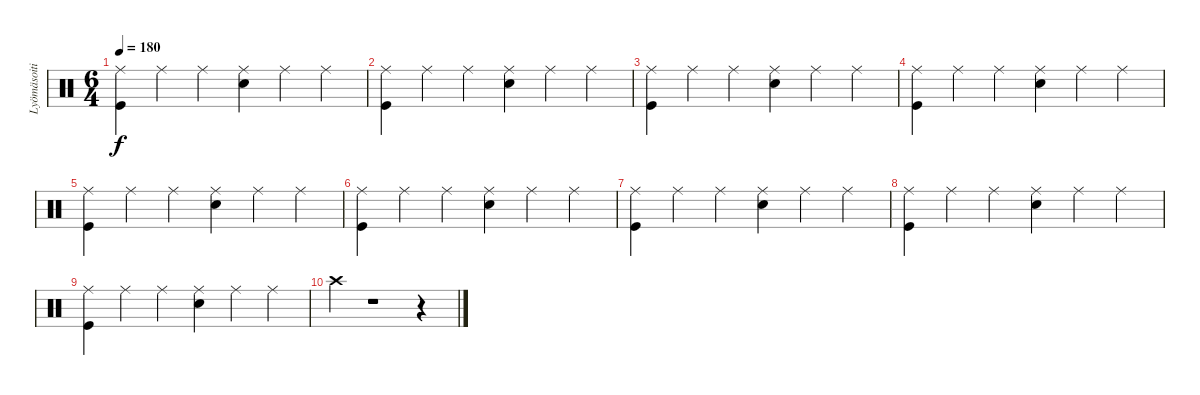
\track ("Lyömäsoitin" "Lyömäsoiti") {instrument percussion}
\staff {score}
\articulation defaults
\ts (6 4)
\tempo 180
\clef neutral
\ks c
("Kick (hit)" "Ride (middle)").4{dy f} "Ride (middle)".4 "Ride (middle)".4 ("Snare (hit) 2" "Ride (middle)").4 "Ride (middle)".4 "Ride (middle)".4 |
("Kick (hit)" "Ride (middle)").4 "Ride (middle)".4 "Ride (middle)".4 ("Snare (hit) 2" "Ride (middle)").4 "Ride (middle)".4 "Ride (middle)".4 |
("Kick (hit)" "Ride (middle)").4 "Ride (middle)".4 "Ride (middle)".4 ("Snare (hit) 2" "Ride (middle)").4 "Ride (middle)".4 "Ride (middle)".4 |
("Kick (hit)" "Ride (middle)").4 "Ride (middle)".4 "Ride (middle)".4 ("Snare (hit) 2" "Ride (middle)").4 "Ride (middle)".4 "Ride (middle)".4 |
("Kick (hit)" "Ride (middle)").4 "Ride (middle)".4 "Ride (middle)".4 ("Snare (hit) 2" "Ride (middle)").4 "Ride (middle)".4 "Ride (middle)".4 |
("Kick (hit)" "Ride (middle)").4 "Ride (middle)".4 "Ride (middle)".4 ("Snare (hit) 2" "Ride (middle)").4 "Ride (middle)".4 "Ride (middle)".4 |
("Kick (hit)" "Ride (middle)").4 "Ride (middle)".4 "Ride (middle)".4 ("Snare (hit) 2" "Ride (middle)").4 "Ride (middle)".4 "Ride (middle)".4 |
("Kick (hit)" "Ride (middle)").4 "Ride (middle)".4 "Ride (middle)".4 ("Snare (hit) 2" "Ride (middle)").4 "Ride (middle)".4 "Ride (middle)".4 |
("Kick (hit)" "Ride (middle)").4 "Ride (middle)".4 "Ride (middle)".4 ("Snare (hit) 2" "Ride (middle)").4 "Ride (middle)".4 "Ride (middle)".4 |
"Crash high (hit)".4 r.1 r.4
